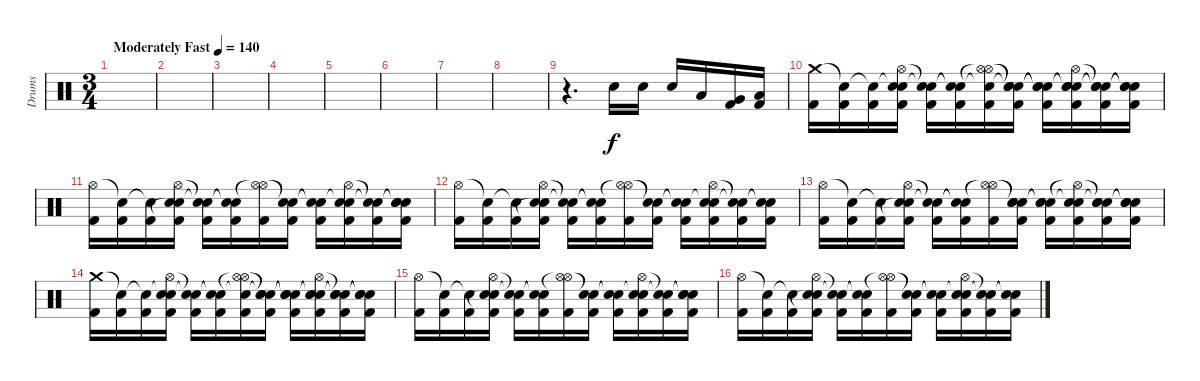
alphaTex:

\track ("Drums" "Drums") {instrument percussion}
\staff {score}
\articulation defaults
\ts (3 4)
\tempo (140 "Moderately Fast")
\clef neutral
\ks c
|
|
|
|
|
|
|
|
r.4{d} "Electric Snare (hit)".16 "Electric Snare (hit)".16 "Electric Snare (hit)".16 "Low Tom (hit)".16 ("Very Low Tom (hit)" "Kick (hit) 2").16 ("Low Floor Tom (hit)" "Kick (hit) 2").16 |
("Crash medium (hit)" "Kick (hit) 2").16 ("Snare (hit)"{t} "Kick (hit) 2").16 ("Snare (hit)"{t} "Kick (hit) 2").16 ("Snare (hit)"{t} "Hi-Hat (open)" "Electric Snare (hit)" "Kick (hit) 2").16 ("Snare (hit)"{t} "Snare (hit)"{t} "Kick (hit) 2").16 ("Snare (hit)"{t} "Snare (hit)"{t} "Kick (hit) 2").16 ("Snare (hit)"{t} "Hi-Hat (open)"{t} "Hi-Hat (open)" "Kick (hit) 2").16 ("Snare (hit)"{t} "Snare (hit)"{t} "Snare (hit)"{t} "Kick (hit) 2").16 ("Snare (hit)"{t} "Snare (hit)"{t} "Snare (hit)"{t} "Kick (hit) 2").16 ("Snare (hit)"{t} "Hi-Hat (open)" "Snare (hit)"{t} "Electric Snare (hit)" "Kick (hit) 2").16 ("Snare (hit)"{t} "Snare (hit)"{t} "Snare (hit)"{t} "Kick (hit) 2").16 ("Snare (hit)"{t} "Snare (hit)"{t} "Snare (hit)"{t} "Kick (hit) 2").16 |
("Hi-Hat (open)" "Kick (hit) 2").16 ("Snare (hit)"{t} "Kick (hit) 2").16 ("Snare (hit)"{t} "Kick (hit) 2").16 ("Hi-Hat (open)" "Snare (hit)"{t} "Electric Snare (hit)" "Kick (hit) 2").16 ("Snare (hit)"{t} "Snare (hit)"{t} "Kick (hit) 2").16 ("Snare (hit)"{t} "Snare (hit)"{t} "Kick (hit) 2").16 ("Hi-Hat (open)"{t} "Hi-Hat (open)" "Kick (hit) 2").16 ("Snare (hit)"{t} "Snare (hit)"{t} "Kick (hit) 2").16 ("Snare (hit)"{t} "Snare (hit)"{t} "Kick (hit) 2").16 ("Hi-Hat (open)" "Snare (hit)"{t} "Electric Snare (hit)" "Kick (hit) 2").16 ("Snare (hit)"{t} "Snare (hit)"{t} "Kick (hit) 2").16 ("Snare (hit)"{t} "Snare (hit)"{t} "Electric Snare (hit)" "Kick (hit) 2").16 |
("Hi-Hat (open)" "Kick (hit) 2").16 ("Snare (hit)"{t} "Kick (hit) 2").16 ("Snare (hit)"{t} "Kick (hit) 2").16 ("Hi-Hat (open)" "Snare (hit)"{t} "Electric Snare (hit)" "Kick (hit) 2").16 ("Snare (hit)"{t} "Snare (hit)"{t} "Kick (hit) 2").16 ("Snare (hit)"{t} "Snare (hit)"{t} "Kick (hit) 2").16 ("Hi-Hat (open)"{t} "Hi-Hat (open)" "Kick (hit) 2").16 ("Snare (hit)"{t} "Snare (hit)"{t} "Kick (hit) 2").16 ("Snare (hit)"{t} "Snare (hit)"{t} "Kick (hit) 2").16 ("Hi-Hat (open)" "Snare (hit)"{t} "Electric Snare (hit)" "Kick (hit) 2").16 ("Snare (hit)"{t} "Snare (hit)"{t} "Kick (hit) 2").16 ("Snare (hit)"{t} "Snare (hit)"{t} "Kick (hit) 2").16 |
("Hi-Hat (open)" "Kick (hit) 2").16 ("Snare (hit)"{t} "Kick (hit) 2").16 ("Snare (hit)"{t} "Kick (hit) 2").16 ("Hi-Hat (open)" "Snare (hit)"{t} "Electric Snare (hit)" "Kick (hit) 2").16 ("Snare (hit)"{t} "Snare (hit)"{t} "Kick (hit) 2").16 ("Snare (hit)"{t} "Snare (hit)"{t} "Kick (hit) 2").16 ("Hi-Hat (open)"{t} "Hi-Hat (open)" "Kick (hit) 2").16 ("Snare (hit)"{t} "Snare (hit)"{t} "Electric Snare (hit)" "Kick (hit) 2").16 ("Snare (hit)"{t} "Snare (hit)"{t} "Electric Snare (hit)" "Kick (hit) 2").16 ("Hi-Hat (open)"{t} "Snare (hit)"{t} "Electric Snare (hit)" "Kick (hit) 2").16 ("Snare (hit)"{t} "Snare (hit)"{t} "Electric Snare (hit)" "Kick (hit) 2").16 ("Snare (hit)"{t} "Snare (hit)"{t} "Electric Snare (hit)" "Kick (hit) 2").16 |
("Crash medium (hit)" "Kick (hit) 2").16 ("Snare (hit)"{t} "Kick (hit) 2").16 ("Snare (hit)"{t} "Kick (hit) 2").16 ("Snare (hit)"{t} "Hi-Hat (open)" "Electric Snare (hit)" "Kick (hit) 2").16 ("Snare (hit)"{t} "Snare (hit)"{t} "Kick (hit) 2").16 ("Snare (hit)"{t} "Snare (hit)"{t} "Kick (hit) 2").16 ("Snare (hit)"{t} "Hi-Hat (open)"{t} "Hi-Hat (open)" "Kick (hit) 2").16 ("Snare (hit)"{t} "Snare (hit)"{t} "Snare (hit)"{t} "Kick (hit) 2").16 ("Snare (hit)"{t} "Snare (hit)"{t} "Snare (hit)"{t} "Kick (hit) 2").16 ("Snare (hit)"{t} "Hi-Hat (open)" "Snare (hit)"{t} "Electric Snare (hit)" "Kick (hit) 2").16 ("Snare (hit)"{t} "Snare (hit)"{t} "Snare (hit)"{t} "Kick (hit) 2").16 ("Snare (hit)"{t} "Snare (hit)"{t} "Snare (hit)"{t} "Kick (hit) 2").16 |
("Hi-Hat (open)" "Kick (hit) 2").16 ("Snare (hit)"{t} "Kick (hit) 2").16 ("Snare (hit)"{t} "Kick (hit) 2").16 ("Hi-Hat (open)" "Snare (hit)"{t} "Electric Snare (hit)" "Kick (hit) 2").16 ("Snare (hit)"{t} "Snare (hit)"{t} "Kick (hit) 2").16 ("Snare (hit)"{t} "Snare (hit)"{t} "Kick (hit) 2").16 ("Hi-Hat (open)"{t} "Hi-Hat (open)" "Kick (hit) 2").16 ("Snare (hit)"{t} "Snare (hit)"{t} "Kick (hit) 2").16 ("Snare (hit)"{t} "Snare (hit)"{t} "Kick (hit) 2").16 ("Hi-Hat (open)" "Snare (hit)"{t} "Electric Snare (hit)" "Kick (hit) 2").16 ("Snare (hit)"{t} "Snare (hit)"{t} "Kick (hit) 2").16 ("Snare (hit)"{t} "Snare (hit)"{t} "Electric Snare (hit)" "Kick (hit) 2").16 |
("Hi-Hat (open)" "Kick (hit) 2").16 ("Snare (hit)"{t} "Kick (hit) 2").16 ("Snare (hit)"{t} "Kick (hit) 2").16 ("Hi-Hat (open)" "Snare (hit)"{t} "Electric Snare (hit)" "Kick (hit) 2").16 ("Snare (hit)"{t} "Snare (hit)"{t} "Kick (hit) 2").16 ("Snare (hit)"{t} "Snare (hit)"{t} "Kick (hit) 2").16 ("Hi-Hat (open)"{t} "Hi-Hat (open)" "Kick (hit) 2").16 ("Snare (hit)"{t} "Snare (hit)"{t} "Kick (hit) 2").16 ("Snare (hit)"{t} "Snare (hit)"{t} "Kick (hit) 2").16 ("Hi-Hat (open)" "Snare (hit)"{t} "Electric Snare (hit)" "Kick (hit) 2").16 ("Snare (hit)"{t} "Snare (hit)"{t} "Kick (hit) 2").16 ("Snare (hit)"{t} "Snare (hit)"{t} "Kick (hit) 2").16
